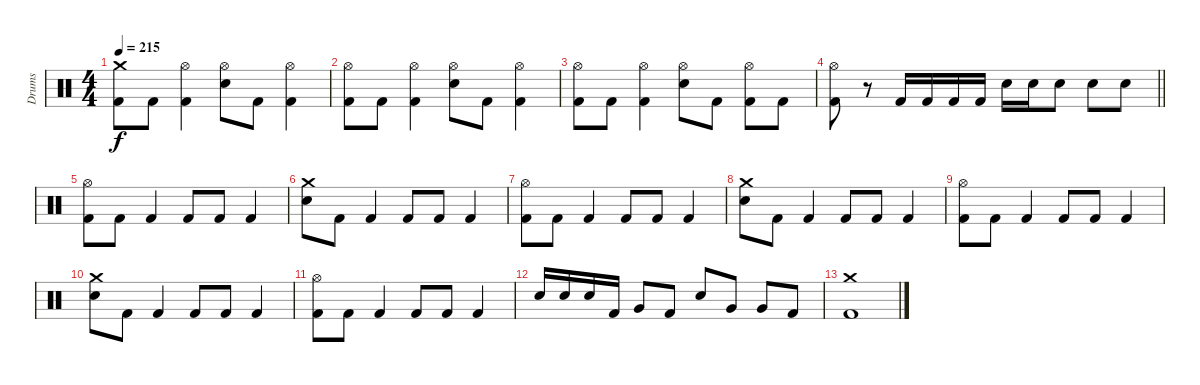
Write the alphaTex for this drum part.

\track ("Drums" "Drums") {instrument percussion}
\staff {score}
\articulation defaults
\ts (4 4)
\tempo 215
\clef neutral
\ks c
("Crash medium (hit)" "Kick (hit) 2").8{dy f} "Kick (hit) 2".8 ("Hi-Hat (open)" "Kick (hit) 2").4 ("Hi-Hat (open)" "Electric Snare (hit)").8 "Kick (hit) 2".8 ("Hi-Hat (open)" "Kick (hit) 2").4 |
("Hi-Hat (open)" "Kick (hit) 2").8 "Kick (hit) 2".8 ("Hi-Hat (open)" "Kick (hit) 2").4 ("Hi-Hat (open)" "Electric Snare (hit)").8 "Kick (hit) 2".8 ("Hi-Hat (open)" "Kick (hit) 2").4 |
("Hi-Hat (open)" "Kick (hit) 2").8 "Kick (hit) 2".8 ("Hi-Hat (open)" "Kick (hit) 2").4 ("Hi-Hat (open)" "Electric Snare (hit)").8 "Kick (hit) 2".8 ("Hi-Hat (open)" "Kick (hit) 2").8 "Kick (hit) 2".8 |
\barLineRight lightlight
("Hi-Hat (open)" "Kick (hit) 2").8 r.8 "Kick (hit) 2".16 "Kick (hit) 2".16 "Kick (hit) 2".16 "Kick (hit) 2".16 "Electric Snare (hit)".16 "Electric Snare (hit)".16 "Electric Snare (hit)".8 "Electric Snare (hit)".8 "Electric Snare (hit)".8 |
("Hi-Hat (open)" "Kick (hit) 2").8 "Kick (hit) 2".8 "Kick (hit) 2".4 "Kick (hit) 2".8 "Kick (hit) 2".8 "Kick (hit) 2".4 |
("Crash medium (hit)" "Electric Snare (hit)").8 "Kick (hit) 2".8 "Kick (hit) 2".4 "Kick (hit) 2".8 "Kick (hit) 2".8 "Kick (hit) 2".4 |
("Hi-Hat (open)" "Kick (hit) 2").8 "Kick (hit) 2".8 "Kick (hit) 2".4 "Kick (hit) 2".8 "Kick (hit) 2".8 "Kick (hit) 2".4 |
("Crash medium (hit)" "Electric Snare (hit)").8 "Kick (hit) 2".8 "Kick (hit) 2".4 "Kick (hit) 2".8 "Kick (hit) 2".8 "Kick (hit) 2".4 |
("Hi-Hat (open)" "Kick (hit) 2").8 "Kick (hit) 2".8 "Kick (hit) 2".4 "Kick (hit) 2".8 "Kick (hit) 2".8 "Kick (hit) 2".4 |
("Crash medium (hit)" "Electric Snare (hit)").8 "Kick (hit) 2".8 "Kick (hit) 2".4 "Kick (hit) 2".8 "Kick (hit) 2".8 "Kick (hit) 2".4 |
("Hi-Hat (open)" "Kick (hit) 2").8 "Kick (hit) 2".8 "Kick (hit) 2".4 "Kick (hit) 2".8 "Kick (hit) 2".8 "Kick (hit) 2".4 |
"Electric Snare (hit)".16 "Electric Snare (hit)".16 "Electric Snare (hit)".16 "Kick (hit) 2".16 "Very Low Tom (hit)".8 "Kick (hit) 2".8 "Electric Snare (hit)".8 "Very Low Tom (hit)".8 "Very Low Tom (hit)".8 "Kick (hit) 2".8 |
("Crash medium (hit)" "Kick (hit) 2").1
